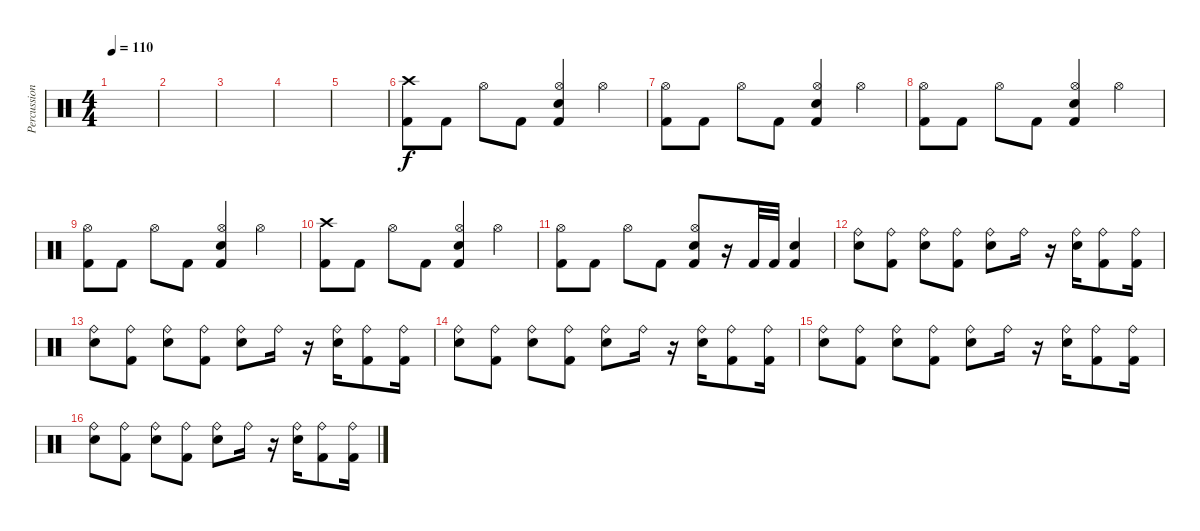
\track ("Percussion" "Percussion") {instrument percussion}
\staff {score}
\articulation defaults
\ts (4 4)
\tempo 110
\clef neutral
\ks c
|
|
|
|
|
("Crash high (hit)" "Kick (hit) 2").8 "Kick (hit) 2".8 "Hi-Hat (open)".8 "Kick (hit) 2".8 ("Hi-Hat (open)" "Electric Snare (hit)" "Kick (hit) 2").4 "Hi-Hat (open)".4 |
("Hi-Hat (open)" "Kick (hit) 2").8 "Kick (hit) 2".8 "Hi-Hat (open)".8 "Kick (hit) 2".8 ("Hi-Hat (open)" "Electric Snare (hit)" "Kick (hit) 2").4 "Hi-Hat (open)".4 |
("Hi-Hat (open)" "Kick (hit) 2").8 "Kick (hit) 2".8 "Hi-Hat (open)".8 "Kick (hit) 2".8 ("Hi-Hat (open)" "Electric Snare (hit)" "Kick (hit) 2").4 "Hi-Hat (open)".4 |
("Hi-Hat (open)" "Kick (hit) 2").8 "Kick (hit) 2".8 "Hi-Hat (open)".8 "Kick (hit) 2".8 ("Hi-Hat (open)" "Electric Snare (hit)" "Kick (hit) 2").4 "Hi-Hat (open)".4 |
("Crash high (hit)" "Kick (hit) 2").8 "Kick (hit) 2".8 "Hi-Hat (open)".8 "Kick (hit) 2".8 ("Hi-Hat (open)" "Electric Snare (hit)" "Kick (hit) 2").4 "Hi-Hat (open)".4 |
("Hi-Hat (open)" "Kick (hit) 2").8 "Kick (hit) 2".8 "Hi-Hat (open)".8 "Kick (hit) 2".8 ("Hi-Hat (open)" "Electric Snare (hit)" "Kick (hit) 2").8 r.16 "Kick (hit) 2".32 "Kick (hit) 2".32 ("Electric Snare (hit)" "Kick (hit) 2").4 |
("Ride (bell)" "Electric Snare (hit)").8 ("Ride (bell)" "Kick (hit) 2").8 ("Ride (bell)" "Electric Snare (hit)").8 ("Ride (bell)" "Kick (hit) 2").8 ("Ride (bell)" "Electric Snare (hit)").8 "Ride (bell)".16 r.16 ("Ride (bell)" "Electric Snare (hit)").16 ("Ride (bell)" "Kick (hit) 2").8 ("Ride (bell)" "Kick (hit) 2").16 |
("Ride (bell)" "Electric Snare (hit)").8 ("Ride (bell)" "Kick (hit) 2").8 ("Ride (bell)" "Electric Snare (hit)").8 ("Ride (bell)" "Kick (hit) 2").8 ("Ride (bell)" "Electric Snare (hit)").8 "Ride (bell)".16 r.16 ("Ride (bell)" "Electric Snare (hit)").16 ("Ride (bell)" "Kick (hit) 2").8 ("Ride (bell)" "Kick (hit) 2").16 |
("Ride (bell)" "Electric Snare (hit)").8 ("Ride (bell)" "Kick (hit) 2").8 ("Ride (bell)" "Electric Snare (hit)").8 ("Ride (bell)" "Kick (hit) 2").8 ("Ride (bell)" "Electric Snare (hit)").8 "Ride (bell)".16 r.16 ("Ride (bell)" "Electric Snare (hit)").16 ("Ride (bell)" "Kick (hit) 2").8 ("Ride (bell)" "Kick (hit) 2").16 |
("Ride (bell)" "Electric Snare (hit)").8 ("Ride (bell)" "Kick (hit) 2").8 ("Ride (bell)" "Electric Snare (hit)").8 ("Ride (bell)" "Kick (hit) 2").8 ("Ride (bell)" "Electric Snare (hit)").8 "Ride (bell)".16 r.16 ("Ride (bell)" "Electric Snare (hit)").16 ("Ride (bell)" "Kick (hit) 2").8 ("Ride (bell)" "Kick (hit) 2").16 |
("Ride (bell)" "Electric Snare (hit)").8 ("Ride (bell)" "Kick (hit) 2").8 ("Ride (bell)" "Electric Snare (hit)").8 ("Ride (bell)" "Kick (hit) 2").8 ("Ride (bell)" "Electric Snare (hit)").8 "Ride (bell)".16 r.16 ("Ride (bell)" "Electric Snare (hit)").16 ("Ride (bell)" "Kick (hit) 2").8 ("Ride (bell)" "Kick (hit) 2").16
